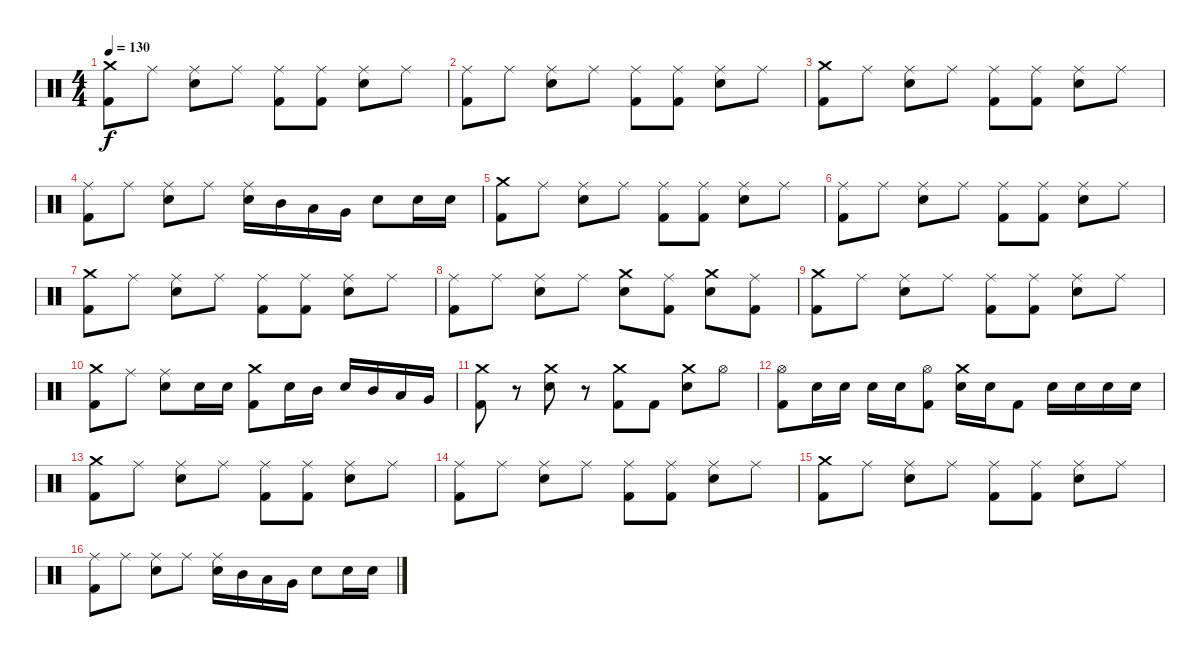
\track "" {instrument percussion}
\staff {score}
\articulation defaults
\ts (4 4)
\tempo 130
\clef neutral
\ks c
("Crash medium (hit)" "Kick (hit) 2").8{dy f} "Ride (middle)".8 ("Ride (middle)" "Electric Snare (hit)").8 "Ride (middle)".8 ("Ride (middle)" "Kick (hit) 2").8 ("Ride (middle)" "Kick (hit) 2").8 ("Ride (middle)" "Electric Snare (hit)").8 "Ride (middle)".8 |
("Ride (middle)" "Kick (hit) 2").8 "Ride (middle)".8 ("Ride (middle)" "Electric Snare (hit)").8 "Ride (middle)".8 ("Ride (middle)" "Kick (hit) 2").8 ("Ride (middle)" "Kick (hit) 2").8 ("Ride (middle)" "Electric Snare (hit)").8 "Ride (middle)".8 |
("Crash medium (hit)" "Kick (hit) 2").8 "Ride (middle)".8 ("Ride (middle)" "Electric Snare (hit)").8 "Ride (middle)".8 ("Ride (middle)" "Kick (hit) 2").8 ("Ride (middle)" "Kick (hit) 2").8 ("Ride (middle)" "Electric Snare (hit)").8 "Ride (middle)".8 |
("Ride (middle)" "Kick (hit) 2").8 "Ride (middle)".8 ("Ride (middle)" "Electric Snare (hit)").8 "Ride (middle)".8 ("Ride (middle)" "Electric Snare (hit)").16 "Mid Tom (hit)".16 "Low Tom (hit)".16 "Very Low Tom (hit)".16 "Electric Snare (hit)".8 "Electric Snare (hit)".16 "Electric Snare (hit)".16 |
("Crash medium (hit)" "Kick (hit) 2").8 "Ride (middle)".8 ("Ride (middle)" "Electric Snare (hit)").8 "Ride (middle)".8 ("Ride (middle)" "Kick (hit) 2").8 ("Ride (middle)" "Kick (hit) 2").8 ("Ride (middle)" "Electric Snare (hit)").8 "Ride (middle)".8 |
("Ride (middle)" "Kick (hit) 2").8 "Ride (middle)".8 ("Ride (middle)" "Electric Snare (hit)").8 "Ride (middle)".8 ("Ride (middle)" "Kick (hit) 2").8 ("Ride (middle)" "Kick (hit) 2").8 ("Ride (middle)" "Electric Snare (hit)").8 "Ride (middle)".8 |
("Crash medium (hit)" "Kick (hit) 2").8 "Ride (middle)".8 ("Ride (middle)" "Electric Snare (hit)").8 "Ride (middle)".8 ("Ride (middle)" "Kick (hit) 2").8 ("Ride (middle)" "Kick (hit) 2").8 ("Ride (middle)" "Electric Snare (hit)").8 "Ride (middle)".8 |
("Ride (middle)" "Kick (hit) 2").8 "Ride (middle)".8 ("Ride (middle)" "Electric Snare (hit)").8 "Ride (middle)".8 ("Crash medium (hit)" "Electric Snare (hit)").8 ("Ride (middle)" "Kick (hit) 2").8 ("Crash medium (hit)" "Electric Snare (hit)").8 ("Ride (middle)" "Kick (hit) 2").8 |
("Crash medium (hit)" "Kick (hit) 2").8 "Ride (middle)".8 ("Ride (middle)" "Electric Snare (hit)").8 "Ride (middle)".8 ("Ride (middle)" "Kick (hit) 2").8 ("Ride (middle)" "Kick (hit) 2").8 ("Ride (middle)" "Electric Snare (hit)").8 "Ride (middle)".8 |
("Crash medium (hit)" "Kick (hit) 2").8 "Ride (middle)".8 ("Ride (middle)" "Electric Snare (hit)").8 "Electric Snare (hit)".16 "Electric Snare (hit)".16 ("Crash medium (hit)" "Kick (hit) 2").8 "Electric Snare (hit)".16 "Mid Tom (hit)".16 "Electric Snare (hit)".16 "Mid Tom (hit)".16 "Low Tom (hit)".16 "Very Low Tom (hit)".16 |
("Crash medium (hit)" "Kick (hit) 2").8 r.8 ("Crash medium (hit)" "Electric Snare (hit)").8 r.8 ("Crash medium (hit)" "Kick (hit) 2").8 "Kick (hit) 2".8 ("Crash medium (hit)" "Electric Snare (hit)").8 "Hi-Hat (open)".8 |
("Hi-Hat (open)" "Kick (hit) 2").8 "Electric Snare (hit)".16 "Electric Snare (hit)".16 "Electric Snare (hit)".16 "Electric Snare (hit)".16 ("Hi-Hat (open)" "Kick (hit) 2").8 ("Crash medium (hit)" "Electric Snare (hit)").16 "Electric Snare (hit)".16 "Kick (hit) 2".8 "Electric Snare (hit)".16 "Electric Snare (hit)".16 "Electric Snare (hit)".16 "Electric Snare (hit)".16 |
("Crash medium (hit)" "Kick (hit) 2").8 "Ride (middle)".8 ("Ride (middle)" "Electric Snare (hit)").8 "Ride (middle)".8 ("Ride (middle)" "Kick (hit) 2").8 ("Ride (middle)" "Kick (hit) 2").8 ("Ride (middle)" "Electric Snare (hit)").8 "Ride (middle)".8 |
("Ride (middle)" "Kick (hit) 2").8 "Ride (middle)".8 ("Ride (middle)" "Electric Snare (hit)").8 "Ride (middle)".8 ("Ride (middle)" "Kick (hit) 2").8 ("Ride (middle)" "Kick (hit) 2").8 ("Ride (middle)" "Electric Snare (hit)").8 "Ride (middle)".8 |
("Crash medium (hit)" "Kick (hit) 2").8 "Ride (middle)".8 ("Ride (middle)" "Electric Snare (hit)").8 "Ride (middle)".8 ("Ride (middle)" "Kick (hit) 2").8 ("Ride (middle)" "Kick (hit) 2").8 ("Ride (middle)" "Electric Snare (hit)").8 "Ride (middle)".8 |
("Ride (middle)" "Kick (hit) 2").8 "Ride (middle)".8 ("Ride (middle)" "Electric Snare (hit)").8 "Ride (middle)".8 ("Ride (middle)" "Electric Snare (hit)").16 "Mid Tom (hit)".16 "Low Tom (hit)".16 "Very Low Tom (hit)".16 "Electric Snare (hit)".8 "Electric Snare (hit)".16 "Electric Snare (hit)".16
